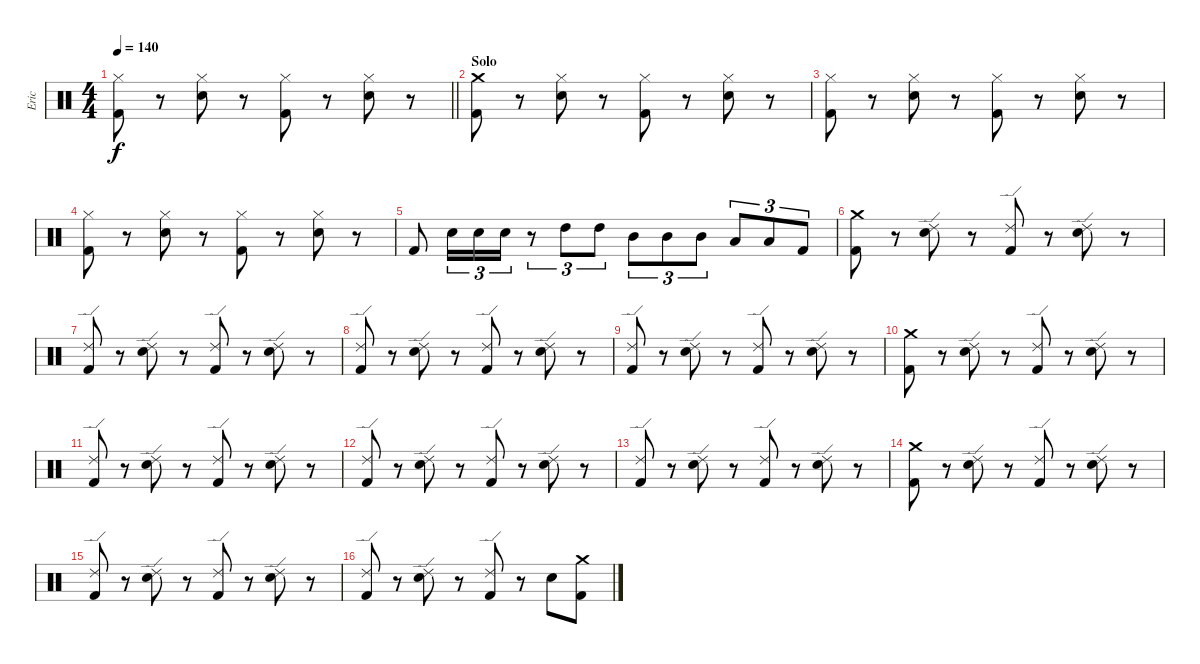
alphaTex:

\track ("Eric" "Eric") {instrument percussion}
\staff {score}
\articulation defaults
\ts (4 4)
\tempo 140
\clef neutral
\barLineRight lightlight
\ks c
("Hi-Hat (closed)" "Kick (hit) 2").8{dy f} r.8 ("Hi-Hat (closed)" "Electric Snare (hit)").8 r.8 ("Hi-Hat (closed)" "Kick (hit) 2").8 r.8 ("Hi-Hat (closed)" "Electric Snare (hit)").8 r.8 |
\section ("" "Solo")
("Crash medium (hit)" "Kick (hit) 2").8 r.8 ("Hi-Hat (closed)" "Electric Snare (hit)").8 r.8 ("Hi-Hat (closed)" "Kick (hit) 2").8 r.8 ("Hi-Hat (closed)" "Electric Snare (hit)").8 r.8 |
("Hi-Hat (closed)" "Kick (hit) 2").8 r.8 ("Hi-Hat (closed)" "Electric Snare (hit)").8 r.8 ("Hi-Hat (closed)" "Kick (hit) 2").8 r.8 ("Hi-Hat (closed)" "Electric Snare (hit)").8 r.8 |
("Hi-Hat (closed)" "Kick (hit) 2").8 r.8 ("Hi-Hat (closed)" "Electric Snare (hit)").8 r.8 ("Hi-Hat (closed)" "Kick (hit) 2").8 r.8 ("Hi-Hat (closed)" "Electric Snare (hit)").8 r.8 |
"Kick (hit) 2".8 "Electric Snare (hit)".16{tu (3 2)} "Electric Snare (hit)".16{tu (3 2)} "Electric Snare (hit)".16{tu (3 2)} r.8{tu (3 2)} "High Tom (hit)".8{tu (3 2)} "High Tom (hit)".8{tu (3 2)} "Mid Tom (hit)".8{tu (3 2)} "Mid Tom (hit)".8{tu (3 2)} "Mid Tom (hit)".8{tu (3 2)} "Low Tom (hit)".8{tu (3 2)} "Low Tom (hit)".8{tu (3 2)} "Kick (hit) 2".8{tu (3 2)} |
("Crash medium (hit)" "Kick (hit) 2").8 r.8 ("Ride (edge) 2" "Electric Snare (hit)").8 r.8 ("Ride (edge) 2" "Kick (hit) 2").8 r.8 ("Ride (edge) 2" "Electric Snare (hit)").8 r.8 |
("Ride (edge) 2" "Kick (hit) 2").8 r.8 ("Ride (edge) 2" "Electric Snare (hit)").8 r.8 ("Ride (edge) 2" "Kick (hit) 2").8 r.8 ("Ride (edge) 2" "Electric Snare (hit)").8 r.8 |
("Ride (edge) 2" "Kick (hit) 2").8 r.8 ("Ride (edge) 2" "Electric Snare (hit)").8 r.8 ("Ride (edge) 2" "Kick (hit) 2").8 r.8 ("Ride (edge) 2" "Electric Snare (hit)").8 r.8 |
("Ride (edge) 2" "Kick (hit) 2").8 r.8 ("Ride (edge) 2" "Electric Snare (hit)").8 r.8 ("Ride (edge) 2" "Kick (hit) 2").8 r.8 ("Ride (edge) 2" "Electric Snare (hit)").8 r.8 |
("Crash medium (hit)" "Kick (hit) 2").8 r.8 ("Ride (edge) 2" "Electric Snare (hit)").8 r.8 ("Ride (edge) 2" "Kick (hit) 2").8 r.8 ("Ride (edge) 2" "Electric Snare (hit)").8 r.8 |
("Ride (edge) 2" "Kick (hit) 2").8 r.8 ("Ride (edge) 2" "Electric Snare (hit)").8 r.8 ("Ride (edge) 2" "Kick (hit) 2").8 r.8 ("Ride (edge) 2" "Electric Snare (hit)").8 r.8 |
("Ride (edge) 2" "Kick (hit) 2").8 r.8 ("Ride (edge) 2" "Electric Snare (hit)").8 r.8 ("Ride (edge) 2" "Kick (hit) 2").8 r.8 ("Ride (edge) 2" "Electric Snare (hit)").8 r.8 |
("Ride (edge) 2" "Kick (hit) 2").8 r.8 ("Ride (edge) 2" "Electric Snare (hit)").8 r.8 ("Ride (edge) 2" "Kick (hit) 2").8 r.8 ("Ride (edge) 2" "Electric Snare (hit)").8 r.8 |
("Crash medium (hit)" "Kick (hit) 2").8 r.8 ("Ride (edge) 2" "Electric Snare (hit)").8 r.8 ("Ride (edge) 2" "Kick (hit) 2").8 r.8 ("Ride (edge) 2" "Electric Snare (hit)").8 r.8 |
("Ride (edge) 2" "Kick (hit) 2").8 r.8 ("Ride (edge) 2" "Electric Snare (hit)").8 r.8 ("Ride (edge) 2" "Kick (hit) 2").8 r.8 ("Ride (edge) 2" "Electric Snare (hit)").8 r.8 |
("Ride (edge) 2" "Kick (hit) 2").8 r.8 ("Ride (edge) 2" "Electric Snare (hit)").8 r.8 ("Ride (edge) 2" "Kick (hit) 2").8 r.8 "Electric Snare (hit)".8 ("Crash medium (hit)" "Kick (hit) 2").8
